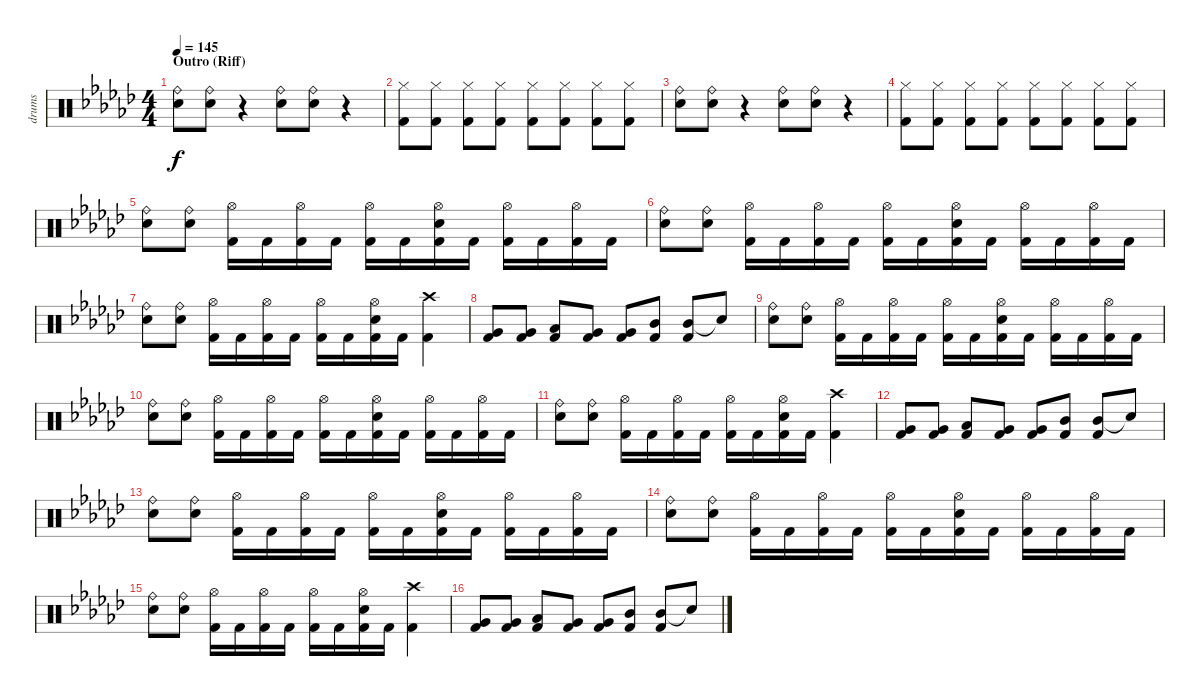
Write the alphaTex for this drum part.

\track ("drums" "drums") {instrument percussion}
\staff {score}
\articulation defaults
\ts (4 4)
\section ("" "Outro (Riff)")
\tempo 145
\clef neutral
\ks gb
("Ride (bell)" "Snare (hit) 2").8{dy f} ("Ride (bell)" "Snare (hit) 2").8 r.4 ("Ride (bell)" "Snare (hit) 2").8 ("Ride (bell)" "Snare (hit) 2").8 r.4 |
("Hi-Hat (closed)" "Kick (hit) 2").8 ("Hi-Hat (closed)" "Kick (hit) 2").8 ("Hi-Hat (closed)" "Kick (hit) 2").8 ("Hi-Hat (closed)" "Kick (hit) 2").8 ("Hi-Hat (closed)" "Kick (hit) 2").8 ("Hi-Hat (closed)" "Kick (hit) 2").8 ("Hi-Hat (closed)" "Kick (hit) 2").8 ("Hi-Hat (closed)" "Kick (hit) 2").8 |
("Ride (bell)" "Snare (hit) 2").8 ("Ride (bell)" "Snare (hit) 2").8 r.4 ("Ride (bell)" "Snare (hit) 2").8 ("Ride (bell)" "Snare (hit) 2").8 r.4 |
("Hi-Hat (closed)" "Kick (hit) 2").8 ("Hi-Hat (closed)" "Kick (hit) 2").8 ("Hi-Hat (closed)" "Kick (hit) 2").8 ("Hi-Hat (closed)" "Kick (hit) 2").8 ("Hi-Hat (closed)" "Kick (hit) 2").8 ("Hi-Hat (closed)" "Kick (hit) 2").8 ("Hi-Hat (closed)" "Kick (hit) 2").8 ("Hi-Hat (closed)" "Kick (hit) 2").8 |
("Ride (bell)" "Snare (hit) 2").8 ("Ride (bell)" "Snare (hit) 2").8 ("Hi-Hat (open)" "Kick (hit) 2").16 "Kick (hit) 2".16 ("Hi-Hat (open)" "Kick (hit) 2").16 "Kick (hit) 2".16 ("Hi-Hat (open)" "Kick (hit) 2").16 "Kick (hit) 2".16 ("Hi-Hat (open)" "Snare (hit) 2" "Kick (hit) 2").16 "Kick (hit) 2".16 ("Hi-Hat (open)" "Kick (hit) 2").16 "Kick (hit) 2".16 ("Hi-Hat (open)" "Kick (hit) 2").16 "Kick (hit) 2".16 |
("Ride (bell)" "Snare (hit) 2").8 ("Ride (bell)" "Snare (hit) 2").8 ("Hi-Hat (open)" "Kick (hit) 2").16 "Kick (hit) 2".16 ("Hi-Hat (open)" "Kick (hit) 2").16 "Kick (hit) 2".16 ("Hi-Hat (open)" "Kick (hit) 2").16 "Kick (hit) 2".16 ("Hi-Hat (open)" "Snare (hit) 2" "Kick (hit) 2").16 "Kick (hit) 2".16 ("Hi-Hat (open)" "Kick (hit) 2").16 "Kick (hit) 2".16 ("Hi-Hat (open)" "Kick (hit) 2").16 "Kick (hit) 2".16 |
("Ride (bell)" "Snare (hit) 2").8 ("Ride (bell)" "Snare (hit) 2").8 ("Hi-Hat (open)" "Kick (hit) 2").16 "Kick (hit) 2".16 ("Hi-Hat (open)" "Kick (hit) 2").16 "Kick (hit) 2".16 ("Hi-Hat (open)" "Kick (hit) 2").16 "Kick (hit) 2".16 ("Hi-Hat (open)" "Snare (hit) 2" "Kick (hit) 2").16 "Kick (hit) 2".16 ("Crash high (hit)" "Kick (hit) 2").4 |
("Very Low Tom (hit)" "Kick (hit) 2").8 ("Very Low Tom (hit)" "Kick (hit) 2").8 ("Low Tom (hit)" "Kick (hit) 2").8 ("Very Low Tom (hit)" "Kick (hit) 2").8 ("Very Low Tom (hit)" "Kick (hit) 2").8 ("Mid Tom (hit)" "Kick (hit) 2").8 ("Mid Tom (hit)" "Kick (hit) 2").8 "Snare (hit)"{t}.8 |
("Ride (bell)" "Snare (hit) 2").8 ("Ride (bell)" "Snare (hit) 2").8 ("Hi-Hat (open)" "Kick (hit) 2").16 "Kick (hit) 2".16 ("Hi-Hat (open)" "Kick (hit) 2").16 "Kick (hit) 2".16 ("Hi-Hat (open)" "Kick (hit) 2").16 "Kick (hit) 2".16 ("Hi-Hat (open)" "Snare (hit) 2" "Kick (hit) 2").16 "Kick (hit) 2".16 ("Hi-Hat (open)" "Kick (hit) 2").16 "Kick (hit) 2".16 ("Hi-Hat (open)" "Kick (hit) 2").16 "Kick (hit) 2".16 |
("Ride (bell)" "Snare (hit) 2").8 ("Ride (bell)" "Snare (hit) 2").8 ("Hi-Hat (open)" "Kick (hit) 2").16 "Kick (hit) 2".16 ("Hi-Hat (open)" "Kick (hit) 2").16 "Kick (hit) 2".16 ("Hi-Hat (open)" "Kick (hit) 2").16 "Kick (hit) 2".16 ("Hi-Hat (open)" "Snare (hit) 2" "Kick (hit) 2").16 "Kick (hit) 2".16 ("Hi-Hat (open)" "Kick (hit) 2").16 "Kick (hit) 2".16 ("Hi-Hat (open)" "Kick (hit) 2").16 "Kick (hit) 2".16 |
("Ride (bell)" "Snare (hit) 2").8 ("Ride (bell)" "Snare (hit) 2").8 ("Hi-Hat (open)" "Kick (hit) 2").16 "Kick (hit) 2".16 ("Hi-Hat (open)" "Kick (hit) 2").16 "Kick (hit) 2".16 ("Hi-Hat (open)" "Kick (hit) 2").16 "Kick (hit) 2".16 ("Hi-Hat (open)" "Snare (hit) 2" "Kick (hit) 2").16 "Kick (hit) 2".16 ("Crash high (hit)" "Kick (hit) 2").4 |
("Very Low Tom (hit)" "Kick (hit) 2").8 ("Very Low Tom (hit)" "Kick (hit) 2").8 ("Low Tom (hit)" "Kick (hit) 2").8 ("Very Low Tom (hit)" "Kick (hit) 2").8 ("Very Low Tom (hit)" "Kick (hit) 2").8 ("Mid Tom (hit)" "Kick (hit) 2").8 ("Mid Tom (hit)" "Kick (hit) 2").8 "Snare (hit)"{t}.8 |
("Ride (bell)" "Snare (hit) 2").8 ("Ride (bell)" "Snare (hit) 2").8 ("Hi-Hat (open)" "Kick (hit) 2").16 "Kick (hit) 2".16 ("Hi-Hat (open)" "Kick (hit) 2").16 "Kick (hit) 2".16 ("Hi-Hat (open)" "Kick (hit) 2").16 "Kick (hit) 2".16 ("Hi-Hat (open)" "Snare (hit) 2" "Kick (hit) 2").16 "Kick (hit) 2".16 ("Hi-Hat (open)" "Kick (hit) 2").16 "Kick (hit) 2".16 ("Hi-Hat (open)" "Kick (hit) 2").16 "Kick (hit) 2".16 |
("Ride (bell)" "Snare (hit) 2").8 ("Ride (bell)" "Snare (hit) 2").8 ("Hi-Hat (open)" "Kick (hit) 2").16 "Kick (hit) 2".16 ("Hi-Hat (open)" "Kick (hit) 2").16 "Kick (hit) 2".16 ("Hi-Hat (open)" "Kick (hit) 2").16 "Kick (hit) 2".16 ("Hi-Hat (open)" "Snare (hit) 2" "Kick (hit) 2").16 "Kick (hit) 2".16 ("Hi-Hat (open)" "Kick (hit) 2").16 "Kick (hit) 2".16 ("Hi-Hat (open)" "Kick (hit) 2").16 "Kick (hit) 2".16 |
("Ride (bell)" "Snare (hit) 2").8 ("Ride (bell)" "Snare (hit) 2").8 ("Hi-Hat (open)" "Kick (hit) 2").16 "Kick (hit) 2".16 ("Hi-Hat (open)" "Kick (hit) 2").16 "Kick (hit) 2".16 ("Hi-Hat (open)" "Kick (hit) 2").16 "Kick (hit) 2".16 ("Hi-Hat (open)" "Snare (hit) 2" "Kick (hit) 2").16 "Kick (hit) 2".16 ("Crash high (hit)" "Kick (hit) 2").4 |
("Very Low Tom (hit)" "Kick (hit) 2").8 ("Very Low Tom (hit)" "Kick (hit) 2").8 ("Low Tom (hit)" "Kick (hit) 2").8 ("Very Low Tom (hit)" "Kick (hit) 2").8 ("Very Low Tom (hit)" "Kick (hit) 2").8 ("Mid Tom (hit)" "Kick (hit) 2").8 ("Mid Tom (hit)" "Kick (hit) 2").8 "Snare (hit)"{t}.8
